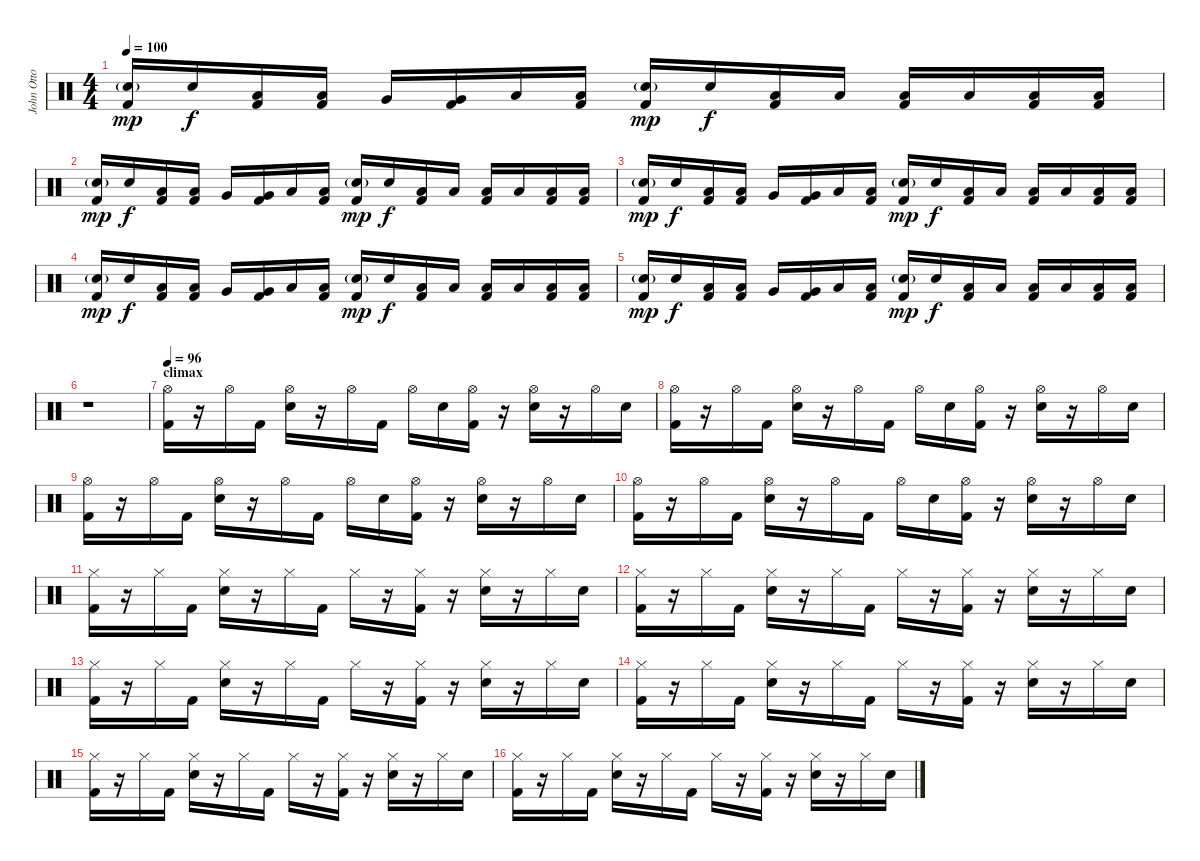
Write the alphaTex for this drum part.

\track ("John Otto" "John Otto") {instrument percussion}
\staff {score}
\articulation defaults
\ts (4 4)
\tempo 100
\clef neutral
\ks c
("Snare (hit) 2"{g} "Kick (hit) 2").16{dy mp} "Snare (hit) 2".16{dy f} ("Low Tom (hit)" "Kick (hit) 2").16 ("Low Tom (hit)" "Kick (hit) 2").16 "Very Low Tom (hit)".16 ("Very Low Tom (hit)" "Kick (hit) 2").16 "Low Floor Tom (hit)".16 ("Low Floor Tom (hit)" "Kick (hit) 2").16 ("Snare (hit) 2"{g} "Kick (hit) 2").16{dy mp} "Snare (hit) 2".16{dy f} ("Low Tom (hit)" "Kick (hit) 2").16 "Low Tom (hit)".16 ("Low Tom (hit)" "Kick (hit) 2").16 "Low Tom (hit)".16 ("Low Floor Tom (hit)" "Kick (hit) 2").16 ("Low Floor Tom (hit)" "Kick (hit) 2").16 |
("Snare (hit) 2"{g} "Kick (hit) 2").16{dy mp} "Snare (hit) 2".16{dy f} ("Low Tom (hit)" "Kick (hit) 2").16 ("Low Tom (hit)" "Kick (hit) 2").16 "Very Low Tom (hit)".16 ("Very Low Tom (hit)" "Kick (hit) 2").16 "Low Floor Tom (hit)".16 ("Low Floor Tom (hit)" "Kick (hit) 2").16 ("Snare (hit) 2"{g} "Kick (hit) 2").16{dy mp} "Snare (hit) 2".16{dy f} ("Low Tom (hit)" "Kick (hit) 2").16 "Low Tom (hit)".16 ("Low Tom (hit)" "Kick (hit) 2").16 "Low Tom (hit)".16 ("Low Floor Tom (hit)" "Kick (hit) 2").16 ("Low Floor Tom (hit)" "Kick (hit) 2").16 |
("Snare (hit) 2"{g} "Kick (hit) 2").16{dy mp} "Snare (hit) 2".16{dy f} ("Low Tom (hit)" "Kick (hit) 2").16 ("Low Tom (hit)" "Kick (hit) 2").16 "Very Low Tom (hit)".16 ("Very Low Tom (hit)" "Kick (hit) 2").16 "Low Floor Tom (hit)".16 ("Low Floor Tom (hit)" "Kick (hit) 2").16 ("Snare (hit) 2"{g} "Kick (hit) 2").16{dy mp} "Snare (hit) 2".16{dy f} ("Low Tom (hit)" "Kick (hit) 2").16 "Low Tom (hit)".16 ("Low Tom (hit)" "Kick (hit) 2").16 "Low Tom (hit)".16 ("Low Floor Tom (hit)" "Kick (hit) 2").16 ("Low Floor Tom (hit)" "Kick (hit) 2").16 |
("Snare (hit) 2"{g} "Kick (hit) 2").16{dy mp} "Snare (hit) 2".16{dy f} ("Low Tom (hit)" "Kick (hit) 2").16 ("Low Tom (hit)" "Kick (hit) 2").16 "Very Low Tom (hit)".16 ("Very Low Tom (hit)" "Kick (hit) 2").16 "Low Floor Tom (hit)".16 ("Low Floor Tom (hit)" "Kick (hit) 2").16 ("Snare (hit) 2"{g} "Kick (hit) 2").16{dy mp} "Snare (hit) 2".16{dy f} ("Low Tom (hit)" "Kick (hit) 2").16 "Low Tom (hit)".16 ("Low Tom (hit)" "Kick (hit) 2").16 "Low Tom (hit)".16 ("Low Floor Tom (hit)" "Kick (hit) 2").16 ("Low Floor Tom (hit)" "Kick (hit) 2").16 |
("Snare (hit) 2"{g} "Kick (hit) 2").16{dy mp} "Snare (hit) 2".16{dy f} ("Low Tom (hit)" "Kick (hit) 2").16 ("Low Tom (hit)" "Kick (hit) 2").16 "Very Low Tom (hit)".16 ("Very Low Tom (hit)" "Kick (hit) 2").16 "Low Floor Tom (hit)".16 ("Low Floor Tom (hit)" "Kick (hit) 2").16 ("Snare (hit) 2"{g} "Kick (hit) 2").16{dy mp} "Snare (hit) 2".16{dy f} ("Low Tom (hit)" "Kick (hit) 2").16 "Low Tom (hit)".16 ("Low Tom (hit)" "Kick (hit) 2").16 "Low Tom (hit)".16 ("Low Floor Tom (hit)" "Kick (hit) 2").16 ("Low Floor Tom (hit)" "Kick (hit) 2").16 |
r.1 |
\section ("" "climax")
\tempo 96
("Hi-Hat (open)" "Kick (hit) 2").16 r.16 "Hi-Hat (open)".16 "Kick (hit) 2".16 ("Hi-Hat (open)" "Snare (hit) 2").16 r.16 "Hi-Hat (open)".16 "Kick (hit) 2".16 "Hi-Hat (open)".16 "Snare (hit) 2".16 ("Hi-Hat (open)" "Kick (hit) 2").16 r.16 ("Hi-Hat (open)" "Snare (hit) 2").16 r.16 "Hi-Hat (open)".16 "Snare (hit) 2".16 |
("Hi-Hat (open)" "Kick (hit) 2").16 r.16 "Hi-Hat (open)".16 "Kick (hit) 2".16 ("Hi-Hat (open)" "Snare (hit) 2").16 r.16 "Hi-Hat (open)".16 "Kick (hit) 2".16 "Hi-Hat (open)".16 "Snare (hit) 2".16 ("Hi-Hat (open)" "Kick (hit) 2").16 r.16 ("Hi-Hat (open)" "Snare (hit) 2").16 r.16 "Hi-Hat (open)".16 "Snare (hit) 2".16 |
("Hi-Hat (open)" "Kick (hit) 2").16 r.16 "Hi-Hat (open)".16 "Kick (hit) 2".16 ("Hi-Hat (open)" "Snare (hit) 2").16 r.16 "Hi-Hat (open)".16 "Kick (hit) 2".16 "Hi-Hat (open)".16 "Snare (hit) 2".16 ("Hi-Hat (open)" "Kick (hit) 2").16 r.16 ("Hi-Hat (open)" "Snare (hit) 2").16 r.16 "Hi-Hat (open)".16 "Snare (hit) 2".16 |
("Hi-Hat (open)" "Kick (hit) 2").16 r.16 "Hi-Hat (open)".16 "Kick (hit) 2".16 ("Hi-Hat (open)" "Snare (hit) 2").16 r.16 "Hi-Hat (open)".16 "Kick (hit) 2".16 "Hi-Hat (open)".16 "Snare (hit) 2".16 ("Hi-Hat (open)" "Kick (hit) 2").16 r.16 ("Hi-Hat (open)" "Snare (hit) 2").16 r.16 "Hi-Hat (open)".16 "Snare (hit) 2".16 |
("Hi-Hat (closed)" "Kick (hit) 2").16 r.16 "Hi-Hat (closed)".16 "Kick (hit) 2".16 ("Hi-Hat (closed)" "Snare (hit) 2").16 r.16 "Hi-Hat (closed)".16 "Kick (hit) 2".16 "Hi-Hat (closed)".16 r.16 ("Hi-Hat (closed)" "Kick (hit) 2").16 r.16 ("Hi-Hat (closed)" "Snare (hit) 2").16 r.16 "Hi-Hat (closed)".16 "Snare (hit) 2".16 |
("Hi-Hat (closed)" "Kick (hit) 2").16 r.16 "Hi-Hat (closed)".16 "Kick (hit) 2".16 ("Hi-Hat (closed)" "Snare (hit) 2").16 r.16 "Hi-Hat (closed)".16 "Kick (hit) 2".16 "Hi-Hat (closed)".16 r.16 ("Hi-Hat (closed)" "Kick (hit) 2").16 r.16 ("Hi-Hat (closed)" "Snare (hit) 2").16 r.16 "Hi-Hat (closed)".16 "Snare (hit) 2".16 |
("Hi-Hat (closed)" "Kick (hit) 2").16 r.16 "Hi-Hat (closed)".16 "Kick (hit) 2".16 ("Hi-Hat (closed)" "Snare (hit) 2").16 r.16 "Hi-Hat (closed)".16 "Kick (hit) 2".16 "Hi-Hat (closed)".16 r.16 ("Hi-Hat (closed)" "Kick (hit) 2").16 r.16 ("Hi-Hat (closed)" "Snare (hit) 2").16 r.16 "Hi-Hat (closed)".16 "Snare (hit) 2".16 |
("Hi-Hat (closed)" "Kick (hit) 2").16 r.16 "Hi-Hat (closed)".16 "Kick (hit) 2".16 ("Hi-Hat (closed)" "Snare (hit) 2").16 r.16 "Hi-Hat (closed)".16 "Kick (hit) 2".16 "Hi-Hat (closed)".16 r.16 ("Hi-Hat (closed)" "Kick (hit) 2").16 r.16 ("Hi-Hat (closed)" "Snare (hit) 2").16 r.16 "Hi-Hat (closed)".16 "Snare (hit) 2".16 |
("Hi-Hat (closed)" "Kick (hit) 2").16 r.16 "Hi-Hat (closed)".16 "Kick (hit) 2".16 ("Hi-Hat (closed)" "Snare (hit) 2").16 r.16 "Hi-Hat (closed)".16 "Kick (hit) 2".16 "Hi-Hat (closed)".16 r.16 ("Hi-Hat (closed)" "Kick (hit) 2").16 r.16 ("Hi-Hat (closed)" "Snare (hit) 2").16 r.16 "Hi-Hat (closed)".16 "Snare (hit) 2".16 |
("Hi-Hat (closed)" "Kick (hit) 2").16 r.16 "Hi-Hat (closed)".16 "Kick (hit) 2".16 ("Hi-Hat (closed)" "Snare (hit) 2").16 r.16 "Hi-Hat (closed)".16 "Kick (hit) 2".16 "Hi-Hat (closed)".16 r.16 ("Hi-Hat (closed)" "Kick (hit) 2").16 r.16 ("Hi-Hat (closed)" "Snare (hit) 2").16 r.16 "Hi-Hat (closed)".16 "Snare (hit) 2".16
